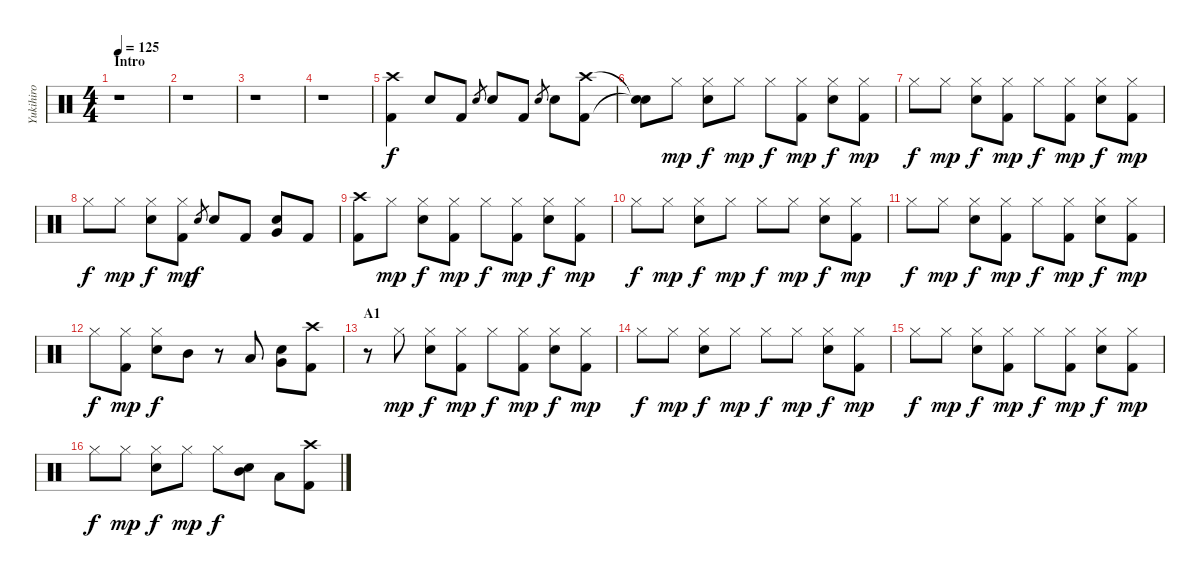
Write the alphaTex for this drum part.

\track ("Yukihiro" "Yukihiro") {instrument percussion}
\staff {score}
\articulation defaults
\ts (4 4)
\section ("" "Intro")
\tempo 125
\clef neutral
\ks c
r.1{dy f} |
r.1 |
r.1 |
r.1 |
("Crash high (hit)" "Kick (hit) 2").4 "Electric Snare (hit)".8 "Kick (hit) 2".8 "Electric Snare (hit)".8{gr} "Electric Snare (hit)".8 "Kick (hit) 2".8 "Electric Snare (hit)".8{gr} "Electric Snare (hit)".8 ("Crash high (hit)" "Kick (hit) 2").8 |
("Snare (hit)"{t} "Snare (hit)"{t}).8 "Hi-Hat (closed)".8{dy mp} ("Hi-Hat (closed)" "Electric Snare (hit)").8{dy f} "Hi-Hat (closed)".8{dy mp} "Hi-Hat (closed)".8{dy f} ("Hi-Hat (closed)" "Kick (hit) 2").8{dy mp} ("Hi-Hat (closed)" "Electric Snare (hit)").8{dy f} ("Hi-Hat (closed)" "Kick (hit) 2").8{dy mp} |
"Hi-Hat (closed)".8{dy f} "Hi-Hat (closed)".8{dy mp} ("Hi-Hat (closed)" "Electric Snare (hit)").8{dy f} ("Hi-Hat (closed)" "Kick (hit) 2").8{dy mp} "Hi-Hat (closed)".8{dy f} ("Hi-Hat (closed)" "Kick (hit) 2").8{dy mp} ("Hi-Hat (closed)" "Electric Snare (hit)").8{dy f} ("Hi-Hat (closed)" "Kick (hit) 2").8{dy mp} |
"Hi-Hat (closed)".8{dy f} "Hi-Hat (closed)".8{dy mp} ("Hi-Hat (closed)" "Electric Snare (hit)").8{dy f} ("Hi-Hat (closed)" "Kick (hit) 2").8{dy mp} "Electric Snare (hit)".8{gr dy f} "Electric Snare (hit)".8 "Kick (hit) 2".8 ("Electric Snare (hit)" "Very Low Tom (hit)").8 "Kick (hit) 2".8 |
("Crash high (hit)" "Kick (hit) 2").8 "Hi-Hat (closed)".8{dy mp} ("Hi-Hat (closed)" "Electric Snare (hit)").8{dy f} ("Hi-Hat (closed)" "Kick (hit) 2").8{dy mp} "Hi-Hat (closed)".8{dy f} ("Hi-Hat (closed)" "Kick (hit) 2").8{dy mp} ("Hi-Hat (closed)" "Electric Snare (hit)").8{dy f} ("Hi-Hat (closed)" "Kick (hit) 2").8{dy mp} |
"Hi-Hat (closed)".8{dy f} "Hi-Hat (closed)".8{dy mp} ("Hi-Hat (closed)" "Electric Snare (hit)").8{dy f} "Hi-Hat (closed)".8{dy mp} "Hi-Hat (closed)".8{dy f} "Hi-Hat (closed)".8{dy mp} ("Hi-Hat (closed)" "Electric Snare (hit)").8{dy f} ("Hi-Hat (closed)" "Kick (hit) 2").8{dy mp} |
"Hi-Hat (closed)".8{dy f} "Hi-Hat (closed)".8{dy mp} ("Hi-Hat (closed)" "Electric Snare (hit)").8{dy f} ("Hi-Hat (closed)" "Kick (hit) 2").8{dy mp} "Hi-Hat (closed)".8{dy f} ("Hi-Hat (closed)" "Kick (hit) 2").8{dy mp} ("Hi-Hat (closed)" "Electric Snare (hit)").8{dy f} ("Hi-Hat (closed)" "Kick (hit) 2").8{dy mp} |
"Hi-Hat (closed)".8{dy f} ("Hi-Hat (closed)" "Kick (hit) 2").8{dy mp} ("Hi-Hat (closed)" "Electric Snare (hit)").8{dy f} "Mid Tom (hit)".8 r.8 "Low Tom (hit)".8 ("Electric Snare (hit)" "Very Low Tom (hit)").8 ("Crash high (hit)" "Kick (hit) 2").8 |
\section ("" "A1")
r.8 "Hi-Hat (closed)".8{dy mp} ("Hi-Hat (closed)" "Electric Snare (hit)").8{dy f} ("Hi-Hat (closed)" "Kick (hit) 2").8{dy mp} "Hi-Hat (closed)".8{dy f} ("Hi-Hat (closed)" "Kick (hit) 2").8{dy mp} ("Hi-Hat (closed)" "Electric Snare (hit)").8{dy f} ("Hi-Hat (closed)" "Kick (hit) 2").8{dy mp} |
"Hi-Hat (closed)".8{dy f} "Hi-Hat (closed)".8{dy mp} ("Hi-Hat (closed)" "Electric Snare (hit)").8{dy f} "Hi-Hat (closed)".8{dy mp} "Hi-Hat (closed)".8{dy f} "Hi-Hat (closed)".8{dy mp} ("Hi-Hat (closed)" "Electric Snare (hit)").8{dy f} ("Hi-Hat (closed)" "Kick (hit) 2").8{dy mp} |
"Hi-Hat (closed)".8{dy f} "Hi-Hat (closed)".8{dy mp} ("Hi-Hat (closed)" "Electric Snare (hit)").8{dy f} ("Hi-Hat (closed)" "Kick (hit) 2").8{dy mp} "Hi-Hat (closed)".8{dy f} ("Hi-Hat (closed)" "Kick (hit) 2").8{dy mp} ("Hi-Hat (closed)" "Electric Snare (hit)").8{dy f} ("Hi-Hat (closed)" "Kick (hit) 2").8{dy mp} |
"Hi-Hat (closed)".8{dy f} "Hi-Hat (closed)".8{dy mp} ("Hi-Hat (closed)" "Electric Snare (hit)").8{dy f} "Hi-Hat (closed)".8{dy mp} "Hi-Hat (closed)".8{dy f} ("Electric Snare (hit)" "Mid Tom (hit)").8 "Low Tom (hit)".8 ("Crash high (hit)" "Kick (hit) 2").8
